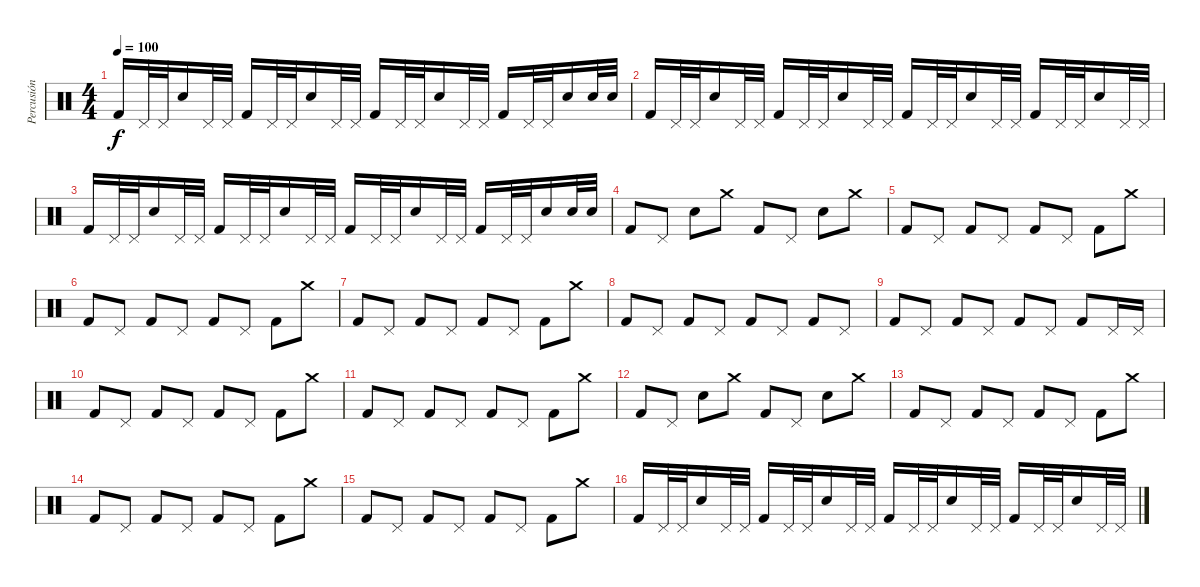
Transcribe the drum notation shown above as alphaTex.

\track ("Percusión" "Percusión") {instrument percussion}
\staff {score}
\articulation defaults
\ts (4 4)
\tempo 100
\clef neutral
\ks c "Kick (hit) 2".16{dy f} "Pedal Hi-Hat (hit)".32 "Pedal Hi-Hat (hit)".32 "Snare (hit) 2".16 "Pedal Hi-Hat (hit)".32 "Pedal Hi-Hat (hit)".32 "Kick (hit) 2".16 "Pedal Hi-Hat (hit)".32 "Pedal Hi-Hat (hit)".32 "Snare (hit) 2".16 "Pedal Hi-Hat (hit)".32 "Pedal Hi-Hat (hit)".32 "Kick (hit) 2".16 "Pedal Hi-Hat (hit)".32 "Pedal Hi-Hat (hit)".32 "Snare (hit) 2".16 "Pedal Hi-Hat (hit)".32 "Pedal Hi-Hat (hit)".32 "Kick (hit) 2".16 "Pedal Hi-Hat (hit)".32 "Pedal Hi-Hat (hit)".32 "Snare (hit) 2".16 "Snare (hit) 2".32 "Snare (hit) 2".32
|
"Kick (hit) 2".16 "Pedal Hi-Hat (hit)".32 "Pedal Hi-Hat (hit)".32 "Snare (hit) 2".16 "Pedal Hi-Hat (hit)".32 "Pedal Hi-Hat (hit)".32 "Kick (hit) 2".16 "Pedal Hi-Hat (hit)".32 "Pedal Hi-Hat (hit)".32 "Snare (hit) 2".16 "Pedal Hi-Hat (hit)".32 "Pedal Hi-Hat (hit)".32 "Kick (hit) 2".16 "Pedal Hi-Hat (hit)".32 "Pedal Hi-Hat (hit)".32 "Snare (hit) 2".16 "Pedal Hi-Hat (hit)".32 "Pedal Hi-Hat (hit)".32 "Kick (hit) 2".16 "Pedal Hi-Hat (hit)".32 "Pedal Hi-Hat (hit)".32 "Snare (hit) 2".16 "Pedal Hi-Hat (hit)".32 "Pedal Hi-Hat (hit)".32 |
"Kick (hit) 2".16 "Pedal Hi-Hat (hit)".32 "Pedal Hi-Hat (hit)".32 "Snare (hit) 2".16 "Pedal Hi-Hat (hit)".32 "Pedal Hi-Hat (hit)".32 "Kick (hit) 2".16 "Pedal Hi-Hat (hit)".32 "Pedal Hi-Hat (hit)".32 "Snare (hit) 2".16 "Pedal Hi-Hat (hit)".32 "Pedal Hi-Hat (hit)".32 "Kick (hit) 2".16 "Pedal Hi-Hat (hit)".32 "Pedal Hi-Hat (hit)".32 "Snare (hit) 2".16 "Pedal Hi-Hat (hit)".32 "Pedal Hi-Hat (hit)".32 "Kick (hit) 2".16 "Pedal Hi-Hat (hit)".32 "Pedal Hi-Hat (hit)".32 "Snare (hit) 2".16 "Snare (hit) 2".32 "Snare (hit) 2".32 |
"Kick (hit) 2".8 "Pedal Hi-Hat (hit)".8 "Snare (hit) 2".8 "Crash medium (hit)".8 "Kick (hit) 2".8 "Pedal Hi-Hat (hit)".8 "Snare (hit) 2".8 "Crash medium (hit)".8 |
"Kick (hit) 2".8 "Pedal Hi-Hat (hit)".8 "Kick (hit) 2".8 "Pedal Hi-Hat (hit)".8 "Kick (hit) 2".8 "Pedal Hi-Hat (hit)".8 "Kick (hit) 2".8 "Crash medium (hit)".8 |
"Kick (hit) 2".8 "Pedal Hi-Hat (hit)".8 "Kick (hit) 2".8 "Pedal Hi-Hat (hit)".8 "Kick (hit) 2".8 "Pedal Hi-Hat (hit)".8 "Kick (hit) 2".8 "Crash medium (hit)".8 |
"Kick (hit) 2".8 "Pedal Hi-Hat (hit)".8 "Kick (hit) 2".8 "Pedal Hi-Hat (hit)".8 "Kick (hit) 2".8 "Pedal Hi-Hat (hit)".8 "Kick (hit) 2".8 "Crash medium (hit)".8 |
"Kick (hit) 2".8 "Pedal Hi-Hat (hit)".8 "Kick (hit) 2".8 "Pedal Hi-Hat (hit)".8 "Kick (hit) 2".8 "Pedal Hi-Hat (hit)".8 "Kick (hit) 2".8 "Pedal Hi-Hat (hit)".8 |
"Kick (hit) 2".8 "Pedal Hi-Hat (hit)".8 "Kick (hit) 2".8 "Pedal Hi-Hat (hit)".8 "Kick (hit) 2".8 "Pedal Hi-Hat (hit)".8 "Kick (hit) 2".8 "Pedal Hi-Hat (hit)".16 "Pedal Hi-Hat (hit)".16 |
"Kick (hit) 2".8 "Pedal Hi-Hat (hit)".8 "Kick (hit) 2".8 "Pedal Hi-Hat (hit)".8 "Kick (hit) 2".8 "Pedal Hi-Hat (hit)".8 "Kick (hit) 2".8 "Crash medium (hit)".8 |
"Kick (hit) 2".8 "Pedal Hi-Hat (hit)".8 "Kick (hit) 2".8 "Pedal Hi-Hat (hit)".8 "Kick (hit) 2".8 "Pedal Hi-Hat (hit)".8 "Kick (hit) 2".8 "Crash medium (hit)".8 |
"Kick (hit) 2".8 "Pedal Hi-Hat (hit)".8 "Snare (hit) 2".8 "Crash medium (hit)".8 "Kick (hit) 2".8 "Pedal Hi-Hat (hit)".8 "Snare (hit) 2".8 "Crash medium (hit)".8 |
"Kick (hit) 2".8 "Pedal Hi-Hat (hit)".8 "Kick (hit) 2".8 "Pedal Hi-Hat (hit)".8 "Kick (hit) 2".8 "Pedal Hi-Hat (hit)".8 "Kick (hit) 2".8 "Crash medium (hit)".8 |
"Kick (hit) 2".8 "Pedal Hi-Hat (hit)".8 "Kick (hit) 2".8 "Pedal Hi-Hat (hit)".8 "Kick (hit) 2".8 "Pedal Hi-Hat (hit)".8 "Kick (hit) 2".8 "Crash medium (hit)".8 |
"Kick (hit) 2".8 "Pedal Hi-Hat (hit)".8 "Kick (hit) 2".8 "Pedal Hi-Hat (hit)".8 "Kick (hit) 2".8 "Pedal Hi-Hat (hit)".8 "Kick (hit) 2".8 "Crash medium (hit)".8 |
"Kick (hit) 2".16 "Pedal Hi-Hat (hit)".32 "Pedal Hi-Hat (hit)".32 "Snare (hit) 2".16 "Pedal Hi-Hat (hit)".32 "Pedal Hi-Hat (hit)".32 "Kick (hit) 2".16 "Pedal Hi-Hat (hit)".32 "Pedal Hi-Hat (hit)".32 "Snare (hit) 2".16 "Pedal Hi-Hat (hit)".32 "Pedal Hi-Hat (hit)".32 "Kick (hit) 2".16 "Pedal Hi-Hat (hit)".32 "Pedal Hi-Hat (hit)".32 "Snare (hit) 2".16 "Pedal Hi-Hat (hit)".32 "Pedal Hi-Hat (hit)".32 "Kick (hit) 2".16 "Pedal Hi-Hat (hit)".32 "Pedal Hi-Hat (hit)".32 "Snare (hit) 2".16 "Pedal Hi-Hat (hit)".32 "Pedal Hi-Hat (hit)".32
